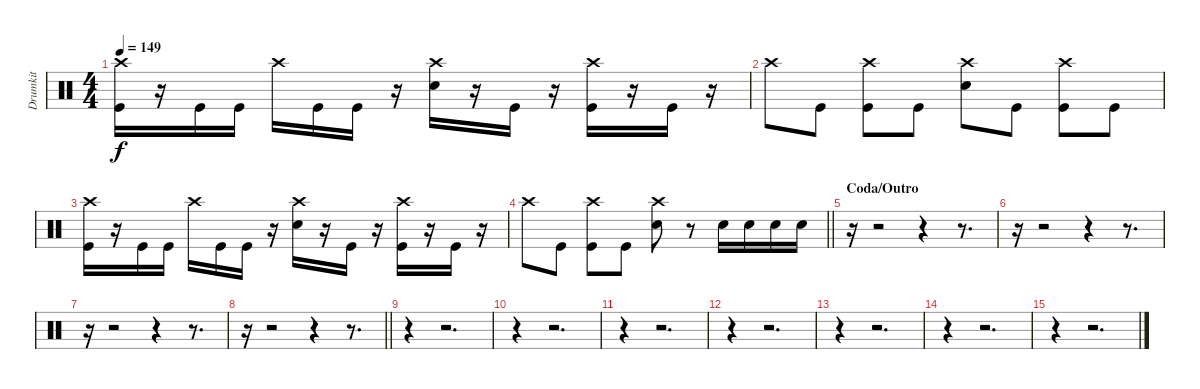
\track ("Drumkit" "Drumkit") {instrument percussion}
\staff {score}
\articulation defaults
\ts (4 4)
\tempo 149
\clef neutral
\ks c
("Crash high (hit)" "Kick (hit)").16{dy f} r.16 "Kick (hit)".16 "Kick (hit)".16 "Crash high (hit)".16 "Kick (hit)".16 "Kick (hit)".16 r.16 ("Crash high (hit)" "Snare (hit) 2").16 r.16 "Kick (hit)".16 r.16 ("Crash high (hit)" "Kick (hit)").16 r.16 "Kick (hit)".16 r.16 |
"Crash high (hit)".8 "Kick (hit)".8 ("Crash high (hit)" "Kick (hit)").8 "Kick (hit)".8 ("Crash high (hit)" "Snare (hit) 2").8 "Kick (hit)".8 ("Crash high (hit)" "Kick (hit)").8 "Kick (hit)".8 |
("Crash high (hit)" "Kick (hit)").16 r.16 "Kick (hit)".16 "Kick (hit)".16 "Crash high (hit)".16 "Kick (hit)".16 "Kick (hit)".16 r.16 ("Crash high (hit)" "Snare (hit) 2").16 r.16 "Kick (hit)".16 r.16 ("Crash high (hit)" "Kick (hit)").16 r.16 "Kick (hit)".16 r.16 |
\barLineRight lightlight "Crash high (hit)".8 "Kick (hit)".8
("Crash high (hit)" "Kick (hit)").8 "Kick (hit)".8 ("Crash high (hit)" "Snare (hit) 2").8 r.8 "Snare (hit) 2".16 "Snare (hit) 2".16 "Snare (hit) 2".16 "Snare (hit) 2".16 |
\section ("" "Coda/Outro")
r.16 r.2 r.4 r.8{d} |
r.16 r.2 r.4 r.8{d} |
r.16 r.2 r.4 r.8{d} |
\barLineRight lightlight
r.16 r.2 r.4 r.8{d} |
r.4 r.2{d} |
r.4 r.2{d} |
r.4 r.2{d} |
r.4 r.2{d} |
r.4 r.2{d} |
r.4 r.2{d} |
r.4 r.2{d}
